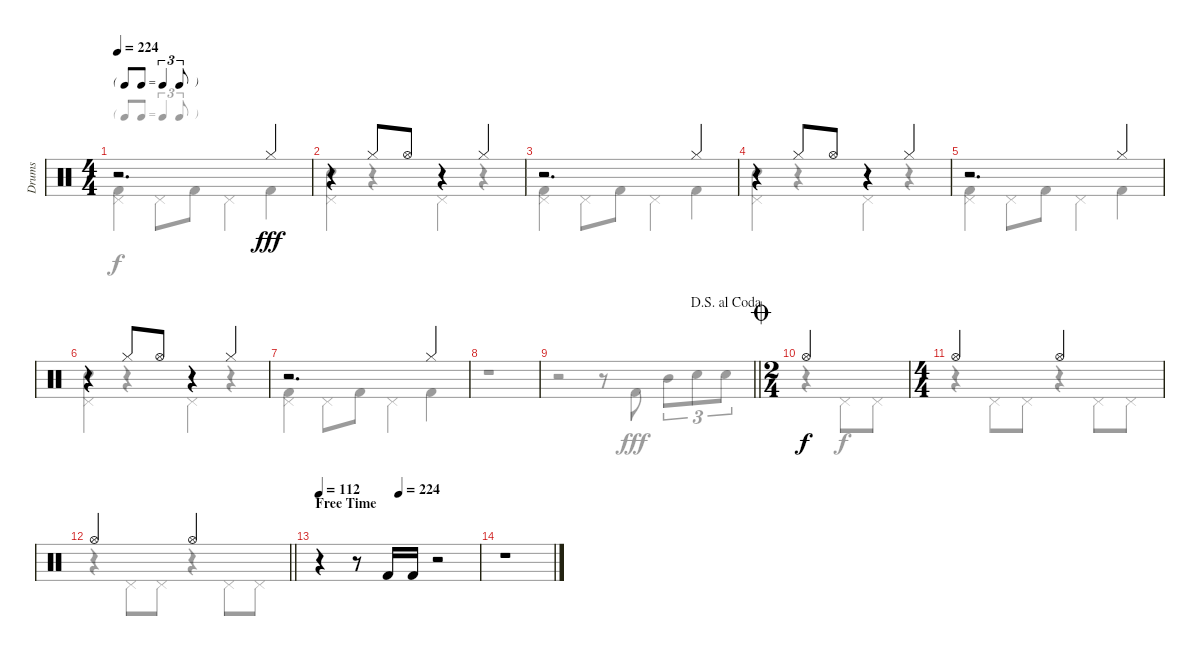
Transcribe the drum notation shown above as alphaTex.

\track ("Drums" "Drums") {instrument percussion}
\staff {score}
\articulation defaults
\voice
\ts (4 4)
\tf triplet8th
\tempo 224
\clef neutral
\ks c
r.2{d dy fff} "Hi-Hat (closed)".4 |
r.4 "Hi-Hat (closed)".8 "Hi-Hat (open)".8 r.4 "Hi-Hat (closed)".4 |
r.2{d} "Hi-Hat (closed)".4 |
r.4 "Hi-Hat (closed)".8 "Hi-Hat (open)".8 r.4 "Hi-Hat (closed)".4 |
r.2{d} "Hi-Hat (closed)".4 |
r.4 "Hi-Hat (closed)".8 "Hi-Hat (open)".8 r.4 "Hi-Hat (closed)".4 |
r.2{d} "Hi-Hat (closed)".4 |
|
\jump dalsegnoalcoda
\barLineRight lightlight
|
\ts (2 4)
\jump coda "Hi-Hat (open)".2{dy f}
|
\ts (4 4)
"Hi-Hat (open)".2 "Hi-Hat (open)".2 |
\barLineRight lightlight "Hi-Hat (open)".2 "Hi-Hat (open)".2
|
\section ("" "Free Time")
\tempo 112
\tempo (224 0.5)
r.4 r.8 "Kick (hit) 2".16 "Kick (hit) 2".16 r.2 |
r.1
\voice
\clef neutral
\ottava regular
\simile none
\ks c
("Pedal Hi-Hat (hit)" "Kick (hit) 2").4{dy f} "Pedal Hi-Hat (hit)".8 "Kick (hit) 2".8 "Pedal Hi-Hat (hit)".4 "Kick (hit) 2".4 |
("Electric Snare (hit)" "Pedal Hi-Hat (hit)").4 r.4 "Pedal Hi-Hat (hit)".4 r.4 |
("Pedal Hi-Hat (hit)" "Kick (hit) 2").4 "Pedal Hi-Hat (hit)".8 "Kick (hit) 2".8 "Pedal Hi-Hat (hit)".4 "Kick (hit) 2".4 |
("Electric Snare (hit)" "Pedal Hi-Hat (hit)").4 r.4 "Pedal Hi-Hat (hit)".4 r.4 |
("Pedal Hi-Hat (hit)" "Kick (hit) 2").4 "Pedal Hi-Hat (hit)".8 "Kick (hit) 2".8 "Pedal Hi-Hat (hit)".4 "Kick (hit) 2".4 |
("Electric Snare (hit)" "Pedal Hi-Hat (hit)").4 r.4 "Pedal Hi-Hat (hit)".4 r.4 |
("Pedal Hi-Hat (hit)" "Kick (hit) 2").4 "Pedal Hi-Hat (hit)".8 "Kick (hit) 2".8 "Pedal Hi-Hat (hit)".4 "Kick (hit) 2".4 |
r.1 |
\barLineRight lightlight
r.2 r.8 "Kick (hit) 2".8{dy fff} "Mid Tom (hit)".8{tu (3 2)} "Electric Snare (hit)".8{tu (3 2)} "Electric Snare (hit)".8{tu (3 2)} |
r.4 "Pedal Hi-Hat (hit)".8{dy f} "Pedal Hi-Hat (hit)".8 |
r.4 "Pedal Hi-Hat (hit)".8 "Pedal Hi-Hat (hit)".8 r.4 "Pedal Hi-Hat (hit)".8 "Pedal Hi-Hat (hit)".8 |
\barLineRight lightlight
r.4 "Pedal Hi-Hat (hit)".8 "Pedal Hi-Hat (hit)".8 r.4 "Pedal Hi-Hat (hit)".8 "Pedal Hi-Hat (hit)".8 |
|
